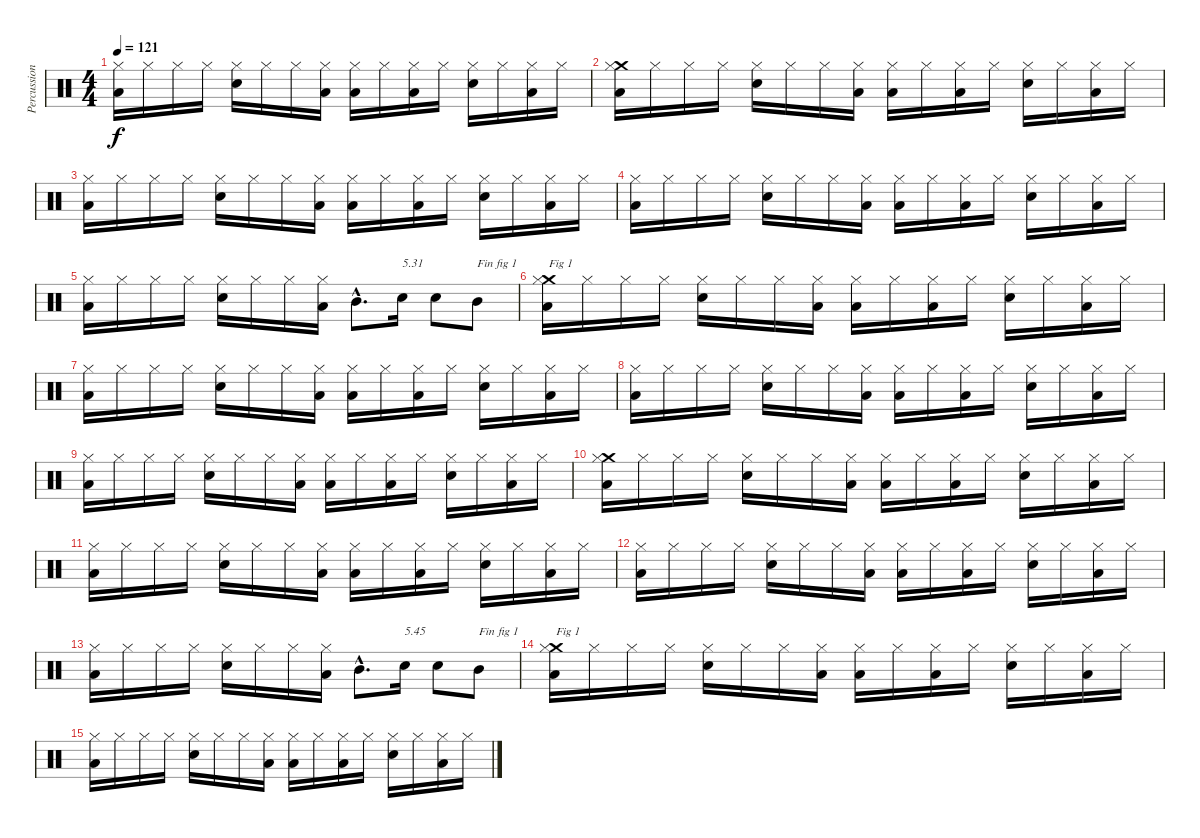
\track ("Percussions" "Percussion") {instrument percussion}
\staff {score}
\articulation defaults
\ts (4 4)
\tempo 121
\clef neutral
\ks c
("Low Floor Tom (hit)" "Hi-Hat (closed)").16{dy f} "Hi-Hat (closed)".16 "Hi-Hat (closed)".16 "Hi-Hat (closed)".16 ("Electric Snare (hit)" "Hi-Hat (closed)").16 "Hi-Hat (closed)".16 "Hi-Hat (closed)".16 ("Low Floor Tom (hit)" "Hi-Hat (closed)").16 ("Low Floor Tom (hit)" "Hi-Hat (closed)").16 "Hi-Hat (closed)".16 ("Low Floor Tom (hit)" "Hi-Hat (closed)").16 "Hi-Hat (closed)".16 ("Electric Snare (hit)" "Hi-Hat (closed)").16 "Hi-Hat (closed)".16 ("Low Floor Tom (hit)" "Hi-Hat (closed)").16 "Hi-Hat (closed)".16 |
("Low Floor Tom (hit)" "Crash medium (hit)" "Hi-Hat (closed)").16 "Hi-Hat (closed)".16 "Hi-Hat (closed)".16 "Hi-Hat (closed)".16 ("Electric Snare (hit)" "Hi-Hat (closed)").16 "Hi-Hat (closed)".16 "Hi-Hat (closed)".16 ("Low Floor Tom (hit)" "Hi-Hat (closed)").16 ("Low Floor Tom (hit)" "Hi-Hat (closed)").16 "Hi-Hat (closed)".16 ("Low Floor Tom (hit)" "Hi-Hat (closed)").16 "Hi-Hat (closed)".16 ("Electric Snare (hit)" "Hi-Hat (closed)").16 "Hi-Hat (closed)".16 ("Low Floor Tom (hit)" "Hi-Hat (closed)").16 "Hi-Hat (closed)".16 |
("Low Floor Tom (hit)" "Hi-Hat (closed)").16 "Hi-Hat (closed)".16 "Hi-Hat (closed)".16 "Hi-Hat (closed)".16 ("Electric Snare (hit)" "Hi-Hat (closed)").16 "Hi-Hat (closed)".16 "Hi-Hat (closed)".16 ("Low Floor Tom (hit)" "Hi-Hat (closed)").16 ("Low Floor Tom (hit)" "Hi-Hat (closed)").16 "Hi-Hat (closed)".16 ("Low Floor Tom (hit)" "Hi-Hat (closed)").16 "Hi-Hat (closed)".16 ("Electric Snare (hit)" "Hi-Hat (closed)").16 "Hi-Hat (closed)".16 ("Low Floor Tom (hit)" "Hi-Hat (closed)").16 "Hi-Hat (closed)".16 |
("Low Floor Tom (hit)" "Hi-Hat (closed)").16 "Hi-Hat (closed)".16 "Hi-Hat (closed)".16 "Hi-Hat (closed)".16 ("Electric Snare (hit)" "Hi-Hat (closed)").16 "Hi-Hat (closed)".16 "Hi-Hat (closed)".16 ("Low Floor Tom (hit)" "Hi-Hat (closed)").16 ("Low Floor Tom (hit)" "Hi-Hat (closed)").16 "Hi-Hat (closed)".16 ("Low Floor Tom (hit)" "Hi-Hat (closed)").16 "Hi-Hat (closed)".16 ("Electric Snare (hit)" "Hi-Hat (closed)").16 "Hi-Hat (closed)".16 ("Low Floor Tom (hit)" "Hi-Hat (closed)").16 "Hi-Hat (closed)".16 |
("Low Floor Tom (hit)" "Hi-Hat (closed)").16 "Hi-Hat (closed)".16 "Hi-Hat (closed)".16 "Hi-Hat (closed)".16 ("Electric Snare (hit)" "Hi-Hat (closed)").16 "Hi-Hat (closed)".16 "Hi-Hat (closed)".16 ("Low Floor Tom (hit)" "Hi-Hat (closed)").16 "Mid Tom (hit)"{hac}.8{d} "Electric Snare (hit)".16{txt "5.31"} "Electric Snare (hit)".8 "Mid Tom (hit)".8{txt "Fin fig 1"} |
("Low Floor Tom (hit)" "Crash medium (hit)" "Hi-Hat (closed)").16{txt "Fig 1"} "Hi-Hat (closed)".16 "Hi-Hat (closed)".16 "Hi-Hat (closed)".16 ("Electric Snare (hit)" "Hi-Hat (closed)").16 "Hi-Hat (closed)".16 "Hi-Hat (closed)".16 ("Low Floor Tom (hit)" "Hi-Hat (closed)").16 ("Low Floor Tom (hit)" "Hi-Hat (closed)").16 "Hi-Hat (closed)".16 ("Low Floor Tom (hit)" "Hi-Hat (closed)").16 "Hi-Hat (closed)".16 ("Electric Snare (hit)" "Hi-Hat (closed)").16 "Hi-Hat (closed)".16 ("Low Floor Tom (hit)" "Hi-Hat (closed)").16 "Hi-Hat (closed)".16 |
("Low Floor Tom (hit)" "Hi-Hat (closed)").16 "Hi-Hat (closed)".16 "Hi-Hat (closed)".16 "Hi-Hat (closed)".16 ("Electric Snare (hit)" "Hi-Hat (closed)").16 "Hi-Hat (closed)".16 "Hi-Hat (closed)".16 ("Low Floor Tom (hit)" "Hi-Hat (closed)").16 ("Low Floor Tom (hit)" "Hi-Hat (closed)").16 "Hi-Hat (closed)".16 ("Low Floor Tom (hit)" "Hi-Hat (closed)").16 "Hi-Hat (closed)".16 ("Electric Snare (hit)" "Hi-Hat (closed)").16 "Hi-Hat (closed)".16 ("Low Floor Tom (hit)" "Hi-Hat (closed)").16 "Hi-Hat (closed)".16 |
("Low Floor Tom (hit)" "Hi-Hat (closed)").16 "Hi-Hat (closed)".16 "Hi-Hat (closed)".16 "Hi-Hat (closed)".16 ("Electric Snare (hit)" "Hi-Hat (closed)").16 "Hi-Hat (closed)".16 "Hi-Hat (closed)".16 ("Low Floor Tom (hit)" "Hi-Hat (closed)").16 ("Low Floor Tom (hit)" "Hi-Hat (closed)").16 "Hi-Hat (closed)".16 ("Low Floor Tom (hit)" "Hi-Hat (closed)").16 "Hi-Hat (closed)".16 ("Electric Snare (hit)" "Hi-Hat (closed)").16 "Hi-Hat (closed)".16 ("Low Floor Tom (hit)" "Hi-Hat (closed)").16 "Hi-Hat (closed)".16 |
("Low Floor Tom (hit)" "Hi-Hat (closed)").16 "Hi-Hat (closed)".16 "Hi-Hat (closed)".16 "Hi-Hat (closed)".16 ("Electric Snare (hit)" "Hi-Hat (closed)").16 "Hi-Hat (closed)".16 "Hi-Hat (closed)".16 ("Low Floor Tom (hit)" "Hi-Hat (closed)").16 ("Low Floor Tom (hit)" "Hi-Hat (closed)").16 "Hi-Hat (closed)".16 ("Low Floor Tom (hit)" "Hi-Hat (closed)").16 "Hi-Hat (closed)".16 ("Electric Snare (hit)" "Hi-Hat (closed)").16 "Hi-Hat (closed)".16 ("Low Floor Tom (hit)" "Hi-Hat (closed)").16 "Hi-Hat (closed)".16 |
("Low Floor Tom (hit)" "Crash medium (hit)" "Hi-Hat (closed)").16 "Hi-Hat (closed)".16 "Hi-Hat (closed)".16 "Hi-Hat (closed)".16 ("Electric Snare (hit)" "Hi-Hat (closed)").16 "Hi-Hat (closed)".16 "Hi-Hat (closed)".16 ("Low Floor Tom (hit)" "Hi-Hat (closed)").16 ("Low Floor Tom (hit)" "Hi-Hat (closed)").16 "Hi-Hat (closed)".16 ("Low Floor Tom (hit)" "Hi-Hat (closed)").16 "Hi-Hat (closed)".16 ("Electric Snare (hit)" "Hi-Hat (closed)").16 "Hi-Hat (closed)".16 ("Low Floor Tom (hit)" "Hi-Hat (closed)").16 "Hi-Hat (closed)".16 |
("Low Floor Tom (hit)" "Hi-Hat (closed)").16 "Hi-Hat (closed)".16 "Hi-Hat (closed)".16 "Hi-Hat (closed)".16 ("Electric Snare (hit)" "Hi-Hat (closed)").16 "Hi-Hat (closed)".16 "Hi-Hat (closed)".16 ("Low Floor Tom (hit)" "Hi-Hat (closed)").16 ("Low Floor Tom (hit)" "Hi-Hat (closed)").16 "Hi-Hat (closed)".16 ("Low Floor Tom (hit)" "Hi-Hat (closed)").16 "Hi-Hat (closed)".16 ("Electric Snare (hit)" "Hi-Hat (closed)").16 "Hi-Hat (closed)".16 ("Low Floor Tom (hit)" "Hi-Hat (closed)").16 "Hi-Hat (closed)".16 |
("Low Floor Tom (hit)" "Hi-Hat (closed)").16 "Hi-Hat (closed)".16 "Hi-Hat (closed)".16 "Hi-Hat (closed)".16 ("Electric Snare (hit)" "Hi-Hat (closed)").16 "Hi-Hat (closed)".16 "Hi-Hat (closed)".16 ("Low Floor Tom (hit)" "Hi-Hat (closed)").16 ("Low Floor Tom (hit)" "Hi-Hat (closed)").16 "Hi-Hat (closed)".16 ("Low Floor Tom (hit)" "Hi-Hat (closed)").16 "Hi-Hat (closed)".16 ("Electric Snare (hit)" "Hi-Hat (closed)").16 "Hi-Hat (closed)".16 ("Low Floor Tom (hit)" "Hi-Hat (closed)").16 "Hi-Hat (closed)".16 |
("Low Floor Tom (hit)" "Hi-Hat (closed)").16 "Hi-Hat (closed)".16 "Hi-Hat (closed)".16 "Hi-Hat (closed)".16 ("Electric Snare (hit)" "Hi-Hat (closed)").16 "Hi-Hat (closed)".16 "Hi-Hat (closed)".16 ("Low Floor Tom (hit)" "Hi-Hat (closed)").16 "Mid Tom (hit)"{hac}.8{d} "Electric Snare (hit)".16{txt "5.45"} "Electric Snare (hit)".8 "Mid Tom (hit)".8{txt "Fin fig 1"} |
("Low Floor Tom (hit)" "Crash medium (hit)" "Hi-Hat (closed)").16{txt "Fig 1" volume 0} "Hi-Hat (closed)".16 "Hi-Hat (closed)".16 "Hi-Hat (closed)".16 ("Electric Snare (hit)" "Hi-Hat (closed)").16 "Hi-Hat (closed)".16 "Hi-Hat (closed)".16 ("Low Floor Tom (hit)" "Hi-Hat (closed)").16 ("Low Floor Tom (hit)" "Hi-Hat (closed)").16 "Hi-Hat (closed)".16 ("Low Floor Tom (hit)" "Hi-Hat (closed)").16 "Hi-Hat (closed)".16 ("Electric Snare (hit)" "Hi-Hat (closed)").16 "Hi-Hat (closed)".16 ("Low Floor Tom (hit)" "Hi-Hat (closed)").16 "Hi-Hat (closed)".16 |
("Low Floor Tom (hit)" "Hi-Hat (closed)").16 "Hi-Hat (closed)".16 "Hi-Hat (closed)".16 "Hi-Hat (closed)".16 ("Electric Snare (hit)" "Hi-Hat (closed)").16 "Hi-Hat (closed)".16 "Hi-Hat (closed)".16 ("Low Floor Tom (hit)" "Hi-Hat (closed)").16 ("Low Floor Tom (hit)" "Hi-Hat (closed)").16 "Hi-Hat (closed)".16 ("Low Floor Tom (hit)" "Hi-Hat (closed)").16 "Hi-Hat (closed)".16 ("Electric Snare (hit)" "Hi-Hat (closed)").16 "Hi-Hat (closed)".16 ("Low Floor Tom (hit)" "Hi-Hat (closed)").16 "Hi-Hat (closed)".16
